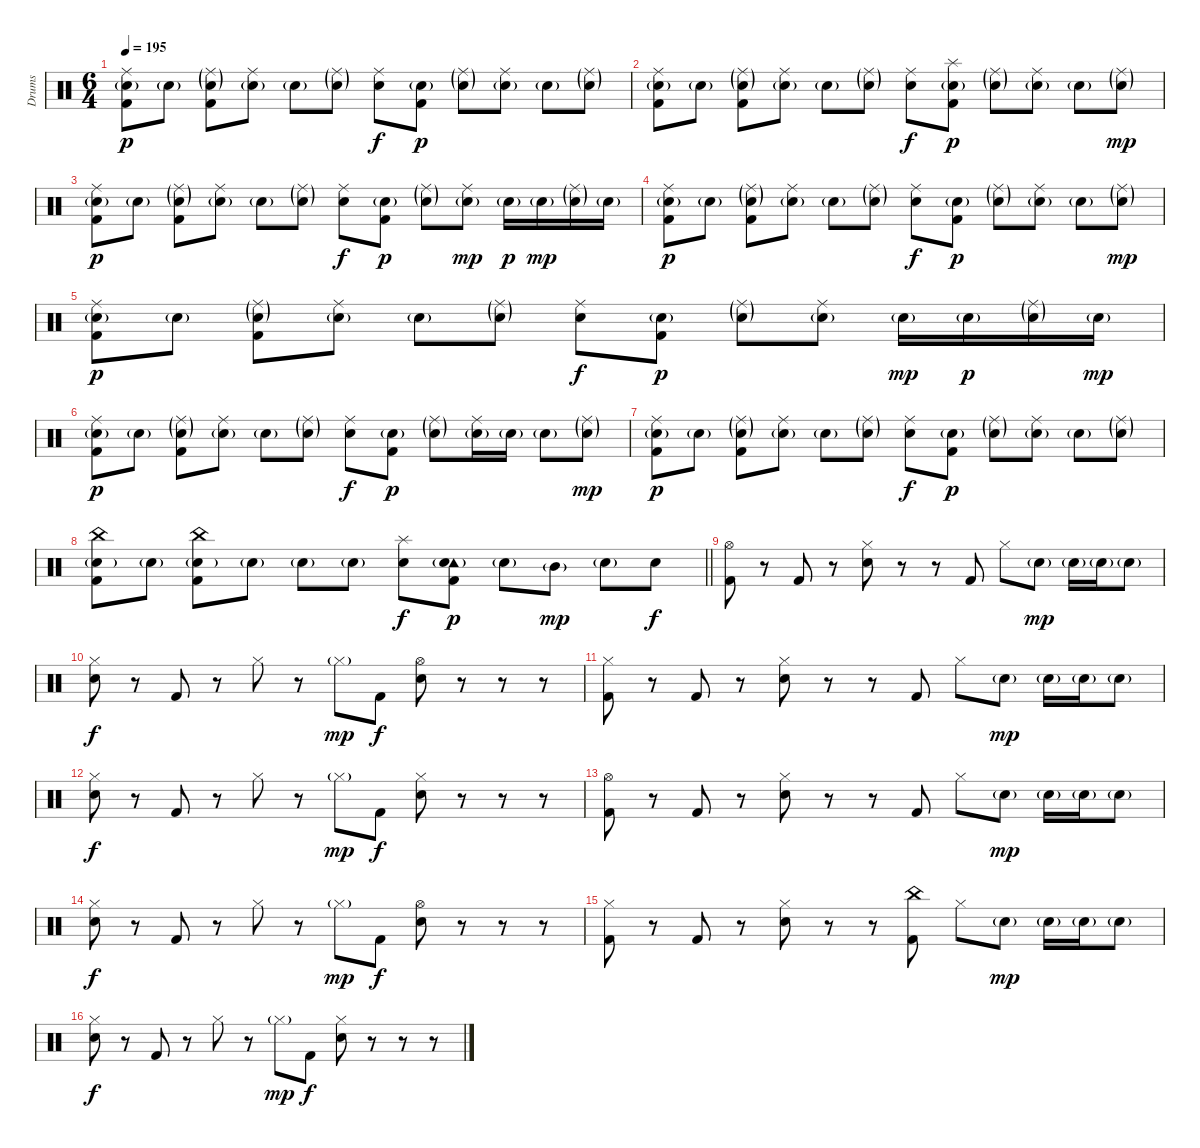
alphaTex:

\track ("Drums" "Drums") {instrument percussion}
\staff {score}
\articulation defaults
\ts (6 4)
\tempo 195
\clef neutral
\ks c
("Ride (middle)" "Electric Snare (hit)"{g} "Kick (hit) 2").8{dy p} "Electric Snare (hit)"{g}.8 ("Ride (middle)"{g} "Electric Snare (hit)"{g} "Kick (hit) 2").8 ("Ride (middle)" "Electric Snare (hit)"{g}).8 "Electric Snare (hit)"{g}.8 ("Ride (middle)"{g} "Electric Snare (hit)"{g}).8 ("Ride (middle)" "Electric Snare (hit)").8{dy f} ("Electric Snare (hit)"{g} "Kick (hit) 2").8{dy p} ("Ride (middle)"{g} "Electric Snare (hit)"{g}).8 ("Ride (middle)" "Electric Snare (hit)"{g}).8 "Electric Snare (hit)"{g}.8 ("Ride (middle)"{g} "Electric Snare (hit)"{g}).8 |
("Ride (middle)" "Electric Snare (hit)"{g} "Kick (hit) 2").8 "Electric Snare (hit)"{g}.8 ("Ride (middle)"{g} "Electric Snare (hit)"{g} "Kick (hit) 2").8 ("Ride (middle)" "Electric Snare (hit)"{g}).8 "Electric Snare (hit)"{g}.8 ("Ride (middle)"{g} "Electric Snare (hit)"{g}).8 ("Ride (middle)" "Electric Snare (hit)").8{dy f} ("Splash (hit)" "Electric Snare (hit)"{g} "Kick (hit) 2").8{dy p} ("Ride (middle)"{g} "Electric Snare (hit)"{g}).8 ("Ride (middle)" "Electric Snare (hit)"{g}).8 "Electric Snare (hit)"{g}.8 ("Ride (middle)"{g} "Electric Snare (hit)"{g}).8{dy mp} |
("Ride (middle)" "Electric Snare (hit)"{g} "Kick (hit) 2").8{dy p} "Electric Snare (hit)"{g}.8 ("Ride (middle)"{g} "Electric Snare (hit)"{g} "Kick (hit) 2").8 ("Ride (middle)" "Electric Snare (hit)"{g}).8 "Electric Snare (hit)"{g}.8 ("Ride (middle)"{g} "Electric Snare (hit)"{g}).8 ("Ride (middle)" "Electric Snare (hit)").8{dy f} ("Electric Snare (hit)"{g} "Kick (hit) 2").8{dy p} ("Ride (middle)"{g} "Electric Snare (hit)"{g}).8 ("Ride (middle)" "Electric Snare (hit)"{g}).8{dy mp} "Electric Snare (hit)"{g}.16{dy p} "Electric Snare (hit)"{g}.16{dy mp} ("Ride (middle)"{g} "Electric Snare (hit)"{g}).16 "Electric Snare (hit)"{g}.16 |
("Ride (middle)" "Electric Snare (hit)"{g} "Kick (hit) 2").8{dy p} "Electric Snare (hit)"{g}.8 ("Ride (middle)"{g} "Electric Snare (hit)"{g} "Kick (hit) 2").8 ("Ride (middle)" "Electric Snare (hit)"{g}).8 "Electric Snare (hit)"{g}.8 ("Ride (middle)"{g} "Electric Snare (hit)"{g}).8 ("Ride (middle)" "Electric Snare (hit)").8{dy f} ("Electric Snare (hit)"{g} "Kick (hit) 2").8{dy p} ("Ride (middle)"{g} "Electric Snare (hit)"{g}).8 ("Ride (middle)" "Electric Snare (hit)"{g}).8 "Electric Snare (hit)"{g}.8 ("Ride (middle)"{g} "Electric Snare (hit)"{g}).8{dy mp} |
("Ride (middle)" "Electric Snare (hit)"{g} "Kick (hit) 2").8{dy p} "Electric Snare (hit)"{g}.8 ("Ride (middle)"{g} "Electric Snare (hit)"{g} "Kick (hit) 2").8 ("Ride (middle)" "Electric Snare (hit)"{g}).8 "Electric Snare (hit)"{g}.8 ("Ride (middle)"{g} "Electric Snare (hit)"{g}).8 ("Ride (middle)" "Electric Snare (hit)").8{dy f} ("Electric Snare (hit)"{g} "Kick (hit) 2").8{dy p} ("Ride (middle)"{g} "Electric Snare (hit)"{g}).8 ("Ride (middle)" "Electric Snare (hit)"{g}).8 "Electric Snare (hit)"{g}.16{dy mp} "Electric Snare (hit)"{g}.16{dy p} ("Ride (middle)"{g} "Electric Snare (hit)"{g}).16 "Electric Snare (hit)"{g}.16{dy mp} |
("Ride (middle)" "Electric Snare (hit)"{g} "Kick (hit) 2").8{dy p} "Electric Snare (hit)"{g}.8 ("Ride (middle)"{g} "Electric Snare (hit)"{g} "Kick (hit) 2").8 ("Ride (middle)" "Electric Snare (hit)"{g}).8 "Electric Snare (hit)"{g}.8 ("Ride (middle)"{g} "Electric Snare (hit)"{g}).8 ("Ride (middle)" "Electric Snare (hit)").8{dy f} ("Electric Snare (hit)"{g} "Kick (hit) 2").8{dy p} ("Ride (middle)"{g} "Electric Snare (hit)"{g}).8 ("Ride (middle)" "Electric Snare (hit)"{g}).16 "Electric Snare (hit)"{g}.16 "Electric Snare (hit)"{g}.8 ("Ride (middle)"{g} "Electric Snare (hit)"{g}).8{dy mp} |
("Ride (middle)" "Electric Snare (hit)"{g} "Kick (hit) 2").8{dy p} "Electric Snare (hit)"{g}.8 ("Ride (middle)"{g} "Electric Snare (hit)"{g} "Kick (hit) 2").8 ("Ride (middle)" "Electric Snare (hit)"{g}).8 "Electric Snare (hit)"{g}.8 ("Ride (middle)"{g} "Electric Snare (hit)"{g}).8 ("Ride (middle)" "Electric Snare (hit)").8{dy f} ("Electric Snare (hit)"{g} "Kick (hit) 2").8{dy p} ("Ride (middle)"{g} "Electric Snare (hit)"{g}).8 ("Ride (middle)" "Electric Snare (hit)"{g}).8 "Electric Snare (hit)"{g}.8 ("Ride (middle)"{g} "Electric Snare (hit)"{g}).8 |
\barLineRight lightlight
("China (hit)" "Electric Snare (hit)"{g} "Kick (hit) 2").8 "Electric Snare (hit)"{g}.8 ("China (hit)" "Electric Snare (hit)"{g} "Kick (hit) 2").8 "Electric Snare (hit)"{g}.8 "Electric Snare (hit)"{g}.8 "Electric Snare (hit)"{g}.8 ("Splash (hit)" "Electric Snare (hit)").8{dy f} ("Tambourine (hit)" "Electric Snare (hit)"{g} "Kick (hit) 2").8{dy p} "Electric Snare (hit)"{g}.8 "Mid Tom (hit)"{g}.8{dy mp} "Electric Snare (hit)"{g}.8 "Electric Snare (hit)".8{dy f} |
\section ("" "")
("Hi-Hat (open)" "Kick (hit) 2").8 r.8 "Kick (hit) 2".8 r.8 ("Hi-Hat (closed)" "Electric Snare (hit)").8 r.8 r.8 "Kick (hit) 2".8 "Hi-Hat (closed)".8 "Electric Snare (hit)"{g}.8{dy mp} "Electric Snare (hit)"{g}.16 "Electric Snare (hit)"{g}.16 "Electric Snare (hit)"{g}.8 |
("Hi-Hat (closed)" "Electric Snare (hit)").8{dy f} r.8 "Kick (hit) 2".8 r.8 "Hi-Hat (closed)".8 r.8 "Hi-Hat (closed)"{g}.8{dy mp} "Kick (hit) 2".8{dy f} ("Hi-Hat (open)" "Electric Snare (hit)").8 r.8 r.8 r.8 |
("Hi-Hat (closed)" "Kick (hit) 2").8 r.8 "Kick (hit) 2".8 r.8 ("Hi-Hat (closed)" "Electric Snare (hit)").8 r.8 r.8 "Kick (hit) 2".8 "Hi-Hat (closed)".8 "Electric Snare (hit)"{g}.8{dy mp} "Electric Snare (hit)"{g}.16 "Electric Snare (hit)"{g}.16 "Electric Snare (hit)"{g}.8 |
("Hi-Hat (closed)" "Electric Snare (hit)").8{dy f} r.8 "Kick (hit) 2".8 r.8 "Hi-Hat (closed)".8 r.8 "Hi-Hat (closed)"{g}.8{dy mp} "Kick (hit) 2".8{dy f} ("Hi-Hat (closed)" "Electric Snare (hit)").8 r.8 r.8 r.8 |
("Hi-Hat (open)" "Kick (hit) 2").8 r.8 "Kick (hit) 2".8 r.8 ("Hi-Hat (closed)" "Electric Snare (hit)").8 r.8 r.8 "Kick (hit) 2".8 "Hi-Hat (closed)".8 "Electric Snare (hit)"{g}.8{dy mp} "Electric Snare (hit)"{g}.16 "Electric Snare (hit)"{g}.16 "Electric Snare (hit)"{g}.8 |
("Hi-Hat (closed)" "Electric Snare (hit)").8{dy f} r.8 "Kick (hit) 2".8 r.8 "Hi-Hat (closed)".8 r.8 "Hi-Hat (closed)"{g}.8{dy mp} "Kick (hit) 2".8{dy f} ("Hi-Hat (open)" "Electric Snare (hit)").8 r.8 r.8 r.8 |
("Hi-Hat (closed)" "Kick (hit) 2").8 r.8 "Kick (hit) 2".8 r.8 ("Hi-Hat (closed)" "Electric Snare (hit)").8 r.8 r.8 ("China (hit)" "Kick (hit) 2").8 "Hi-Hat (closed)".8 "Electric Snare (hit)"{g}.8{dy mp} "Electric Snare (hit)"{g}.16 "Electric Snare (hit)"{g}.16 "Electric Snare (hit)"{g}.8 |
("Hi-Hat (closed)" "Electric Snare (hit)").8{dy f} r.8 "Kick (hit) 2".8 r.8 "Hi-Hat (closed)".8 r.8 "Hi-Hat (closed)"{g}.8{dy mp} "Kick (hit) 2".8{dy f} ("Hi-Hat (closed)" "Electric Snare (hit)").8 r.8 r.8 r.8
